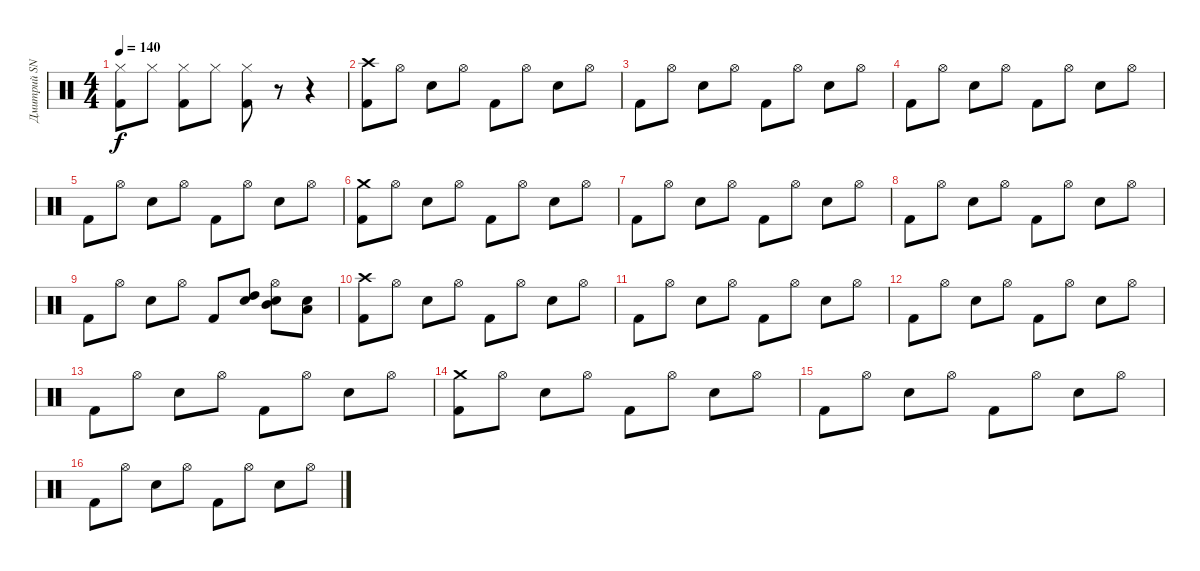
\track ("Дмитрий SNAKE Хакимов" "Дмитрий SN") {instrument percussion}
\staff {score}
\articulation defaults
\ts (4 4)
\tempo 140
\clef neutral
\ks c
("Hi-Hat (closed)" "Kick (hit) 2").8{dy f} "Hi-Hat (closed)".8 ("Hi-Hat (closed)" "Kick (hit) 2").8 "Hi-Hat (closed)".8 ("Hi-Hat (closed)" "Kick (hit) 2").8 r.8 r.4 |
("Crash high (hit)" "Kick (hit) 2").8 "Hi-Hat (open)".8 "Electric Snare (hit)".8 "Hi-Hat (open)".8 "Kick (hit) 2".8 "Hi-Hat (open)".8 "Electric Snare (hit)".8 "Hi-Hat (open)".8 |
"Kick (hit) 2".8 "Hi-Hat (open)".8 "Electric Snare (hit)".8 "Hi-Hat (open)".8 "Kick (hit) 2".8 "Hi-Hat (open)".8 "Electric Snare (hit)".8 "Hi-Hat (open)".8 |
"Kick (hit) 2".8 "Hi-Hat (open)".8 "Electric Snare (hit)".8 "Hi-Hat (open)".8 "Kick (hit) 2".8 "Hi-Hat (open)".8 "Electric Snare (hit)".8 "Hi-Hat (open)".8 |
"Kick (hit) 2".8 "Hi-Hat (open)".8 "Electric Snare (hit)".8 "Hi-Hat (open)".8 "Kick (hit) 2".8 "Hi-Hat (open)".8 "Electric Snare (hit)".8 "Hi-Hat (open)".8 |
("Crash medium (hit)" "Kick (hit) 2").8 "Hi-Hat (open)".8 "Electric Snare (hit)".8 "Hi-Hat (open)".8 "Kick (hit) 2".8 "Hi-Hat (open)".8 "Electric Snare (hit)".8 "Hi-Hat (open)".8 |
"Kick (hit) 2".8 "Hi-Hat (open)".8 "Electric Snare (hit)".8 "Hi-Hat (open)".8 "Kick (hit) 2".8 "Hi-Hat (open)".8 "Electric Snare (hit)".8 "Hi-Hat (open)".8 |
"Kick (hit) 2".8 "Hi-Hat (open)".8 "Electric Snare (hit)".8 "Hi-Hat (open)".8 "Kick (hit) 2".8 "Hi-Hat (open)".8 "Electric Snare (hit)".8 "Hi-Hat (open)".8 |
"Kick (hit) 2".8 "Hi-Hat (open)".8 "Electric Snare (hit)".8 "Hi-Hat (open)".8 "Kick (hit) 2".8 ("High Tom (hit)" "Electric Snare (hit)").8 ("Hi-Hat (open)" "Mid Tom (hit)" "Electric Snare (hit)").8 ("Low Tom (hit)" "Electric Snare (hit)").8 |
("Crash high (hit)" "Kick (hit) 2").8 "Hi-Hat (open)".8 "Electric Snare (hit)".8 "Hi-Hat (open)".8 "Kick (hit) 2".8 "Hi-Hat (open)".8 "Electric Snare (hit)".8 "Hi-Hat (open)".8 |
"Kick (hit) 2".8 "Hi-Hat (open)".8 "Electric Snare (hit)".8 "Hi-Hat (open)".8 "Kick (hit) 2".8 "Hi-Hat (open)".8 "Electric Snare (hit)".8 "Hi-Hat (open)".8 |
"Kick (hit) 2".8 "Hi-Hat (open)".8 "Electric Snare (hit)".8 "Hi-Hat (open)".8 "Kick (hit) 2".8 "Hi-Hat (open)".8 "Electric Snare (hit)".8 "Hi-Hat (open)".8 |
"Kick (hit) 2".8 "Hi-Hat (open)".8 "Electric Snare (hit)".8 "Hi-Hat (open)".8 "Kick (hit) 2".8 "Hi-Hat (open)".8 "Electric Snare (hit)".8 "Hi-Hat (open)".8 |
("Crash medium (hit)" "Kick (hit) 2").8 "Hi-Hat (open)".8 "Electric Snare (hit)".8 "Hi-Hat (open)".8 "Kick (hit) 2".8 "Hi-Hat (open)".8 "Electric Snare (hit)".8 "Hi-Hat (open)".8 |
"Kick (hit) 2".8 "Hi-Hat (open)".8 "Electric Snare (hit)".8 "Hi-Hat (open)".8 "Kick (hit) 2".8 "Hi-Hat (open)".8 "Electric Snare (hit)".8 "Hi-Hat (open)".8 |
"Kick (hit) 2".8 "Hi-Hat (open)".8 "Electric Snare (hit)".8 "Hi-Hat (open)".8 "Kick (hit) 2".8 "Hi-Hat (open)".8 "Electric Snare (hit)".8 "Hi-Hat (open)".8
